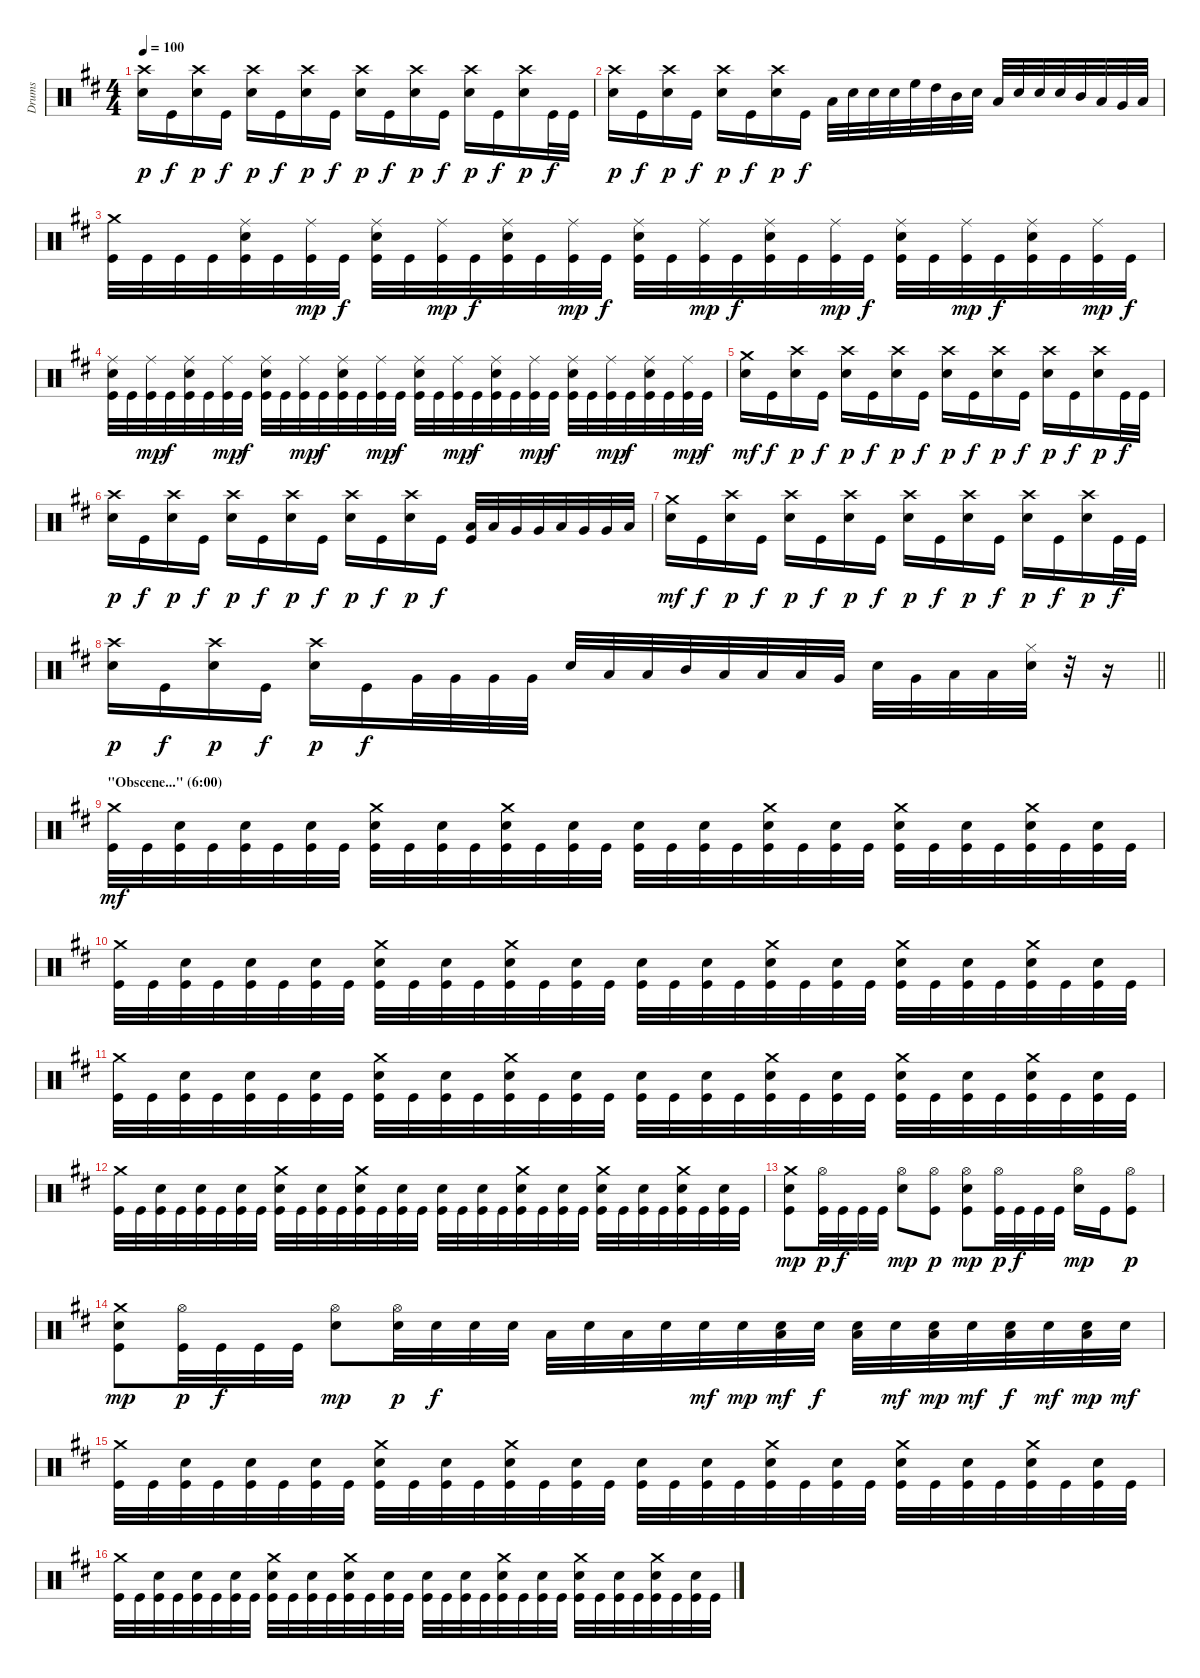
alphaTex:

\track ("Drums" "Drums") {instrument percussion}
\staff {score}
\articulation defaults
\ts (4 4)
\tempo 100
\clef neutral
\ks bminor
("Crash high (hit)" "Snare (hit) 2").16{dy p} "Kick (hit)".16{dy f} ("Crash high (hit)" "Snare (hit) 2").16{dy p} "Kick (hit)".16{dy f} ("Crash high (hit)" "Snare (hit) 2").16{dy p} "Kick (hit)".16{dy f} ("Crash high (hit)" "Snare (hit) 2").16{dy p} "Kick (hit)".16{dy f} ("Crash high (hit)" "Snare (hit) 2").16{dy p} "Kick (hit)".16{dy f} ("Crash high (hit)" "Snare (hit) 2").16{dy p} "Kick (hit)".16{dy f} ("Crash high (hit)" "Snare (hit) 2").16{dy p} "Kick (hit)".16{dy f} ("Crash high (hit)" "Snare (hit) 2").16{dy p} "Kick (hit)".32{dy f} "Kick (hit)".32 |
("Crash high (hit)" "Snare (hit) 2").16{dy p} "Kick (hit)".16{dy f} ("Crash high (hit)" "Snare (hit) 2").16{dy p} "Kick (hit)".16{dy f} ("Crash high (hit)" "Snare (hit) 2").16{dy p} "Kick (hit)".16{dy f} ("Crash high (hit)" "Snare (hit) 2").16{dy p} "Kick (hit)".16{dy f} "Low Floor Tom (hit)".32 "Snare (hit) 2".32 "Snare (hit) 2".32 "Snare (hit) 2".32 "High Floor Tom (hit)".32 "High Tom (hit)".32 "Mid Tom (hit)".32 "Snare (hit) 2".32 "Low Floor Tom (hit)".32 "Snare (hit) 2".32 "Snare (hit) 2".32 "Snare (hit) 2".32 "Mid Tom (hit)".32 "Low Tom (hit)".32 "Very Low Tom (hit)".32 "Low Floor Tom (hit)".32 |
("Crash medium (hit)" "Kick (hit)").32 "Kick (hit)".32 "Kick (hit)".32 "Kick (hit)".32 ("Ride (middle)" "Snare (hit) 2" "Kick (hit)").32 "Kick (hit)".32 ("Ride (middle)" "Kick (hit)").32{dy mp} "Kick (hit)".32{dy f} ("Ride (middle)" "Snare (hit) 2" "Kick (hit)").32 "Kick (hit)".32 ("Ride (middle)" "Kick (hit)").32{dy mp} "Kick (hit)".32{dy f} ("Ride (middle)" "Snare (hit) 2" "Kick (hit)").32 "Kick (hit)".32 ("Ride (middle)" "Kick (hit)").32{dy mp} "Kick (hit)".32{dy f} ("Ride (middle)" "Snare (hit) 2" "Kick (hit)").32 "Kick (hit)".32 ("Ride (middle)" "Kick (hit)").32{dy mp} "Kick (hit)".32{dy f} ("Ride (middle)" "Snare (hit) 2" "Kick (hit)").32 "Kick (hit)".32 ("Ride (middle)" "Kick (hit)").32{dy mp} "Kick (hit)".32{dy f} ("Ride (middle)" "Snare (hit) 2" "Kick (hit)").32 "Kick (hit)".32 ("Ride (middle)" "Kick (hit)").32{dy mp} "Kick (hit)".32{dy f} ("Ride (middle)" "Snare (hit) 2" "Kick (hit)").32 "Kick (hit)".32 ("Ride (middle)" "Kick (hit)").32{dy mp} "Kick (hit)".32{dy f} |
("Ride (middle)" "Snare (hit) 2" "Kick (hit)").32 "Kick (hit)".32 ("Ride (middle)" "Kick (hit)").32{dy mp} "Kick (hit)".32{dy f} ("Ride (middle)" "Snare (hit) 2" "Kick (hit)").32 "Kick (hit)".32 ("Ride (middle)" "Kick (hit)").32{dy mp} "Kick (hit)".32{dy f} ("Ride (middle)" "Snare (hit) 2" "Kick (hit)").32 "Kick (hit)".32 ("Ride (middle)" "Kick (hit)").32{dy mp} "Kick (hit)".32{dy f} ("Ride (middle)" "Snare (hit) 2" "Kick (hit)").32 "Kick (hit)".32 ("Ride (middle)" "Kick (hit)").32{dy mp} "Kick (hit)".32{dy f} ("Ride (middle)" "Snare (hit) 2" "Kick (hit)").32 "Kick (hit)".32 ("Ride (middle)" "Kick (hit)").32{dy mp} "Kick (hit)".32{dy f} ("Ride (middle)" "Snare (hit) 2" "Kick (hit)").32 "Kick (hit)".32 ("Ride (middle)" "Kick (hit)").32{dy mp} "Kick (hit)".32{dy f} ("Ride (middle)" "Snare (hit) 2" "Kick (hit)").32 "Kick (hit)".32 ("Ride (middle)" "Kick (hit)").32{dy mp} "Kick (hit)".32{dy f} ("Ride (middle)" "Snare (hit) 2" "Kick (hit)").32 "Kick (hit)".32 ("Ride (middle)" "Kick (hit)").32{dy mp} "Kick (hit)".32{dy f} |
("Crash medium (hit)" "Snare (hit) 2").16{dy mf} "Kick (hit)".16{dy f} ("Crash high (hit)" "Snare (hit) 2").16{dy p} "Kick (hit)".16{dy f} ("Crash high (hit)" "Snare (hit) 2").16{dy p} "Kick (hit)".16{dy f} ("Crash high (hit)" "Snare (hit) 2").16{dy p} "Kick (hit)".16{dy f} ("Crash high (hit)" "Snare (hit) 2").16{dy p} "Kick (hit)".16{dy f} ("Crash high (hit)" "Snare (hit) 2").16{dy p} "Kick (hit)".16{dy f} ("Crash high (hit)" "Snare (hit) 2").16{dy p} "Kick (hit)".16{dy f} ("Crash high (hit)" "Snare (hit) 2").16{dy p} "Kick (hit)".32{dy f} "Kick (hit)".32 |
("Crash high (hit)" "Snare (hit) 2").16{dy p} "Kick (hit)".16{dy f} ("Crash high (hit)" "Snare (hit) 2").16{dy p} "Kick (hit)".16{dy f} ("Crash high (hit)" "Snare (hit) 2").16{dy p} "Kick (hit)".16{dy f} ("Crash high (hit)" "Snare (hit) 2").16{dy p} "Kick (hit)".16{dy f} ("Crash high (hit)" "Snare (hit) 2").16{dy p} "Kick (hit)".16{dy f} ("Crash high (hit)" "Snare (hit) 2").16{dy p} "Kick (hit)".16{dy f} ("Low Floor Tom (hit)" "Kick (hit)").32 "Low Floor Tom (hit)".32 "Very Low Tom (hit)".32 "Very Low Tom (hit)".32 "Low Tom (hit)".32 "Very Low Tom (hit)".32 "Very Low Tom (hit)".32 "Low Floor Tom (hit)".32 |
("Crash medium (hit)" "Snare (hit) 2").16{dy mf} "Kick (hit)".16{dy f} ("Crash high (hit)" "Snare (hit) 2").16{dy p} "Kick (hit)".16{dy f} ("Crash high (hit)" "Snare (hit) 2").16{dy p} "Kick (hit)".16{dy f} ("Crash high (hit)" "Snare (hit) 2").16{dy p} "Kick (hit)".16{dy f} ("Crash high (hit)" "Snare (hit) 2").16{dy p} "Kick (hit)".16{dy f} ("Crash high (hit)" "Snare (hit) 2").16{dy p} "Kick (hit)".16{dy f} ("Crash high (hit)" "Snare (hit) 2").16{dy p} "Kick (hit)".16{dy f} ("Crash high (hit)" "Snare (hit) 2").16{dy p} "Kick (hit)".32{dy f} "Kick (hit)".32 |
\barLineRight lightlight
("Crash high (hit)" "Snare (hit) 2").16{dy p} "Kick (hit)".16{dy f} ("Crash high (hit)" "Snare (hit) 2").16{dy p} "Kick (hit)".16{dy f} ("Crash high (hit)" "Snare (hit) 2").16{dy p} "Kick (hit)".16{dy f} "Very Low Tom (hit)".32 "Very Low Tom (hit)".32 "Very Low Tom (hit)".32 "Very Low Tom (hit)".32 "Snare (hit) 2".32 "Low Tom (hit)".32 "Low Tom (hit)".32 "Mid Tom (hit)".32 "Low Tom (hit)".32 "Low Tom (hit)".32 "Low Tom (hit)".32 "Very Low Tom (hit)".32 "Snare (hit) 2".32 "Very Low Tom (hit)".32 "Low Floor Tom (hit)".32 "Low Floor Tom (hit)".32 ("Hi-Hat (closed)" "Snare (hit) 2").32 r.32 r.16 |
\section ("" "\"Obscene...\" (6:00)")
("Crash medium (hit)" "Kick (hit)").32{dy mf} "Kick (hit)".32 ("Snare (hit) 2" "Kick (hit)").32 "Kick (hit)".32 ("Snare (hit) 2" "Kick (hit)").32 "Kick (hit)".32 ("Snare (hit) 2" "Kick (hit)").32 "Kick (hit)".32 ("Crash medium (hit)" "Snare (hit) 2" "Kick (hit)").32 "Kick (hit)".32 ("Snare (hit) 2" "Kick (hit)").32 "Kick (hit)".32 ("Crash medium (hit)" "Snare (hit) 2" "Kick (hit)").32 "Kick (hit)".32 ("Snare (hit) 2" "Kick (hit)").32 "Kick (hit)".32 ("Snare (hit) 2" "Kick (hit)").32 "Kick (hit)".32 ("Snare (hit) 2" "Kick (hit)").32 "Kick (hit)".32 ("Crash medium (hit)" "Snare (hit) 2" "Kick (hit)").32 "Kick (hit)".32 ("Snare (hit) 2" "Kick (hit)").32 "Kick (hit)".32 ("Crash medium (hit)" "Snare (hit) 2" "Kick (hit)").32 "Kick (hit)".32 ("Snare (hit) 2" "Kick (hit)").32 "Kick (hit)".32 ("Crash medium (hit)" "Snare (hit) 2" "Kick (hit)").32 "Kick (hit)".32 ("Snare (hit) 2" "Kick (hit)").32 "Kick (hit)".32 |
("Crash medium (hit)" "Kick (hit)").32 "Kick (hit)".32 ("Snare (hit) 2" "Kick (hit)").32 "Kick (hit)".32 ("Snare (hit) 2" "Kick (hit)").32 "Kick (hit)".32 ("Snare (hit) 2" "Kick (hit)").32 "Kick (hit)".32 ("Crash medium (hit)" "Snare (hit) 2" "Kick (hit)").32 "Kick (hit)".32 ("Snare (hit) 2" "Kick (hit)").32 "Kick (hit)".32 ("Crash medium (hit)" "Snare (hit) 2" "Kick (hit)").32 "Kick (hit)".32 ("Snare (hit) 2" "Kick (hit)").32 "Kick (hit)".32 ("Snare (hit) 2" "Kick (hit)").32 "Kick (hit)".32 ("Snare (hit) 2" "Kick (hit)").32 "Kick (hit)".32 ("Crash medium (hit)" "Snare (hit) 2" "Kick (hit)").32 "Kick (hit)".32 ("Snare (hit) 2" "Kick (hit)").32 "Kick (hit)".32 ("Crash medium (hit)" "Snare (hit) 2" "Kick (hit)").32 "Kick (hit)".32 ("Snare (hit) 2" "Kick (hit)").32 "Kick (hit)".32 ("Crash medium (hit)" "Snare (hit) 2" "Kick (hit)").32 "Kick (hit)".32 ("Snare (hit) 2" "Kick (hit)").32 "Kick (hit)".32 |
("Crash medium (hit)" "Kick (hit)").32 "Kick (hit)".32 ("Snare (hit) 2" "Kick (hit)").32 "Kick (hit)".32 ("Snare (hit) 2" "Kick (hit)").32 "Kick (hit)".32 ("Snare (hit) 2" "Kick (hit)").32 "Kick (hit)".32 ("Crash medium (hit)" "Snare (hit) 2" "Kick (hit)").32 "Kick (hit)".32 ("Snare (hit) 2" "Kick (hit)").32 "Kick (hit)".32 ("Crash medium (hit)" "Snare (hit) 2" "Kick (hit)").32 "Kick (hit)".32 ("Snare (hit) 2" "Kick (hit)").32 "Kick (hit)".32 ("Snare (hit) 2" "Kick (hit)").32 "Kick (hit)".32 ("Snare (hit) 2" "Kick (hit)").32 "Kick (hit)".32 ("Crash medium (hit)" "Snare (hit) 2" "Kick (hit)").32 "Kick (hit)".32 ("Snare (hit) 2" "Kick (hit)").32 "Kick (hit)".32 ("Crash medium (hit)" "Snare (hit) 2" "Kick (hit)").32 "Kick (hit)".32 ("Snare (hit) 2" "Kick (hit)").32 "Kick (hit)".32 ("Crash medium (hit)" "Snare (hit) 2" "Kick (hit)").32 "Kick (hit)".32 ("Snare (hit) 2" "Kick (hit)").32 "Kick (hit)".32 |
("Crash medium (hit)" "Kick (hit)").32 "Kick (hit)".32 ("Snare (hit) 2" "Kick (hit)").32 "Kick (hit)".32 ("Snare (hit) 2" "Kick (hit)").32 "Kick (hit)".32 ("Snare (hit) 2" "Kick (hit)").32 "Kick (hit)".32 ("Crash medium (hit)" "Snare (hit) 2" "Kick (hit)").32 "Kick (hit)".32 ("Snare (hit) 2" "Kick (hit)").32 "Kick (hit)".32 ("Crash medium (hit)" "Snare (hit) 2" "Kick (hit)").32 "Kick (hit)".32 ("Snare (hit) 2" "Kick (hit)").32 "Kick (hit)".32 ("Snare (hit) 2" "Kick (hit)").32 "Kick (hit)".32 ("Snare (hit) 2" "Kick (hit)").32 "Kick (hit)".32 ("Crash medium (hit)" "Snare (hit) 2" "Kick (hit)").32 "Kick (hit)".32 ("Snare (hit) 2" "Kick (hit)").32 "Kick (hit)".32 ("Crash medium (hit)" "Snare (hit) 2" "Kick (hit)").32 "Kick (hit)".32 ("Snare (hit) 2" "Kick (hit)").32 "Kick (hit)".32 ("Crash medium (hit)" "Snare (hit) 2" "Kick (hit)").32 "Kick (hit)".32 ("Snare (hit) 2" "Kick (hit)").32 "Kick (hit)".32 |
("Crash medium (hit)" "Snare (hit) 2" "Kick (hit)").8{dy mp} ("Hi-Hat (open)" "Kick (hit)").32{dy p} "Kick (hit)".32{dy f} "Kick (hit)".32 "Kick (hit)".32 ("Hi-Hat (open)" "Snare (hit) 2").8{dy mp} ("Hi-Hat (open)" "Kick (hit)").8{dy p} ("Hi-Hat (open)" "Snare (hit) 2" "Kick (hit)").8{dy mp} ("Hi-Hat (open)" "Kick (hit)").32{dy p} "Kick (hit)".32{dy f} "Kick (hit)".32 "Kick (hit)".32 ("Hi-Hat (open)" "Snare (hit) 2").16{dy mp} "Kick (hit)".16 ("Hi-Hat (open)" "Kick (hit)").8{dy p} |
("Crash medium (hit)" "Snare (hit) 2" "Kick (hit)").8{dy mp} ("Hi-Hat (open)" "Kick (hit)").32{dy p} "Kick (hit)".32{dy f} "Kick (hit)".32 "Kick (hit)".32 ("Hi-Hat (open)" "Snare (hit) 2").8{dy mp} ("Hi-Hat (open)" "Snare (hit) 2").32{dy p} "Snare (hit) 2".32{dy f} "Snare (hit) 2".32 "Snare (hit) 2".32 "Low Floor Tom (hit)".32 "Snare (hit) 2".32 "Low Tom (hit)".32 "Snare (hit) 2".32 "Snare (hit) 2".32{dy mf} "Snare (hit) 2".32{dy mp} ("Low Floor Tom (hit)" "Snare (hit) 2").32{dy mf} "Snare (hit) 2".32{dy f} ("Low Tom (hit)" "Snare (hit) 2").32 "Snare (hit) 2".32{dy mf} ("Low Floor Tom (hit)" "Snare (hit) 2").32{dy mp} "Snare (hit) 2".32{dy mf} ("Low Tom (hit)" "Snare (hit) 2").32{dy f} "Snare (hit) 2".32{dy mf} ("Low Floor Tom (hit)" "Snare (hit) 2").32{dy mp} "Snare (hit) 2".32{dy mf} |
("Crash medium (hit)" "Kick (hit)").32 "Kick (hit)".32 ("Snare (hit) 2" "Kick (hit)").32 "Kick (hit)".32 ("Snare (hit) 2" "Kick (hit)").32 "Kick (hit)".32 ("Snare (hit) 2" "Kick (hit)").32 "Kick (hit)".32 ("Crash medium (hit)" "Snare (hit) 2" "Kick (hit)").32 "Kick (hit)".32 ("Snare (hit) 2" "Kick (hit)").32 "Kick (hit)".32 ("Crash medium (hit)" "Snare (hit) 2" "Kick (hit)").32 "Kick (hit)".32 ("Snare (hit) 2" "Kick (hit)").32 "Kick (hit)".32 ("Snare (hit) 2" "Kick (hit)").32 "Kick (hit)".32 ("Snare (hit) 2" "Kick (hit)").32 "Kick (hit)".32 ("Crash medium (hit)" "Snare (hit) 2" "Kick (hit)").32 "Kick (hit)".32 ("Snare (hit) 2" "Kick (hit)").32 "Kick (hit)".32 ("Crash medium (hit)" "Snare (hit) 2" "Kick (hit)").32 "Kick (hit)".32 ("Snare (hit) 2" "Kick (hit)").32 "Kick (hit)".32 ("Crash medium (hit)" "Snare (hit) 2" "Kick (hit)").32 "Kick (hit)".32 ("Snare (hit) 2" "Kick (hit)").32 "Kick (hit)".32 |
("Crash medium (hit)" "Kick (hit)").32 "Kick (hit)".32 ("Snare (hit) 2" "Kick (hit)").32 "Kick (hit)".32 ("Snare (hit) 2" "Kick (hit)").32 "Kick (hit)".32 ("Snare (hit) 2" "Kick (hit)").32 "Kick (hit)".32 ("Crash medium (hit)" "Snare (hit) 2" "Kick (hit)").32 "Kick (hit)".32 ("Snare (hit) 2" "Kick (hit)").32 "Kick (hit)".32 ("Crash medium (hit)" "Snare (hit) 2" "Kick (hit)").32 "Kick (hit)".32 ("Snare (hit) 2" "Kick (hit)").32 "Kick (hit)".32 ("Snare (hit) 2" "Kick (hit)").32 "Kick (hit)".32 ("Snare (hit) 2" "Kick (hit)").32 "Kick (hit)".32 ("Crash medium (hit)" "Snare (hit) 2" "Kick (hit)").32 "Kick (hit)".32 ("Snare (hit) 2" "Kick (hit)").32 "Kick (hit)".32 ("Crash medium (hit)" "Snare (hit) 2" "Kick (hit)").32 "Kick (hit)".32 ("Snare (hit) 2" "Kick (hit)").32 "Kick (hit)".32 ("Crash medium (hit)" "Snare (hit) 2" "Kick (hit)").32 "Kick (hit)".32 ("Snare (hit) 2" "Kick (hit)").32 "Kick (hit)".32
